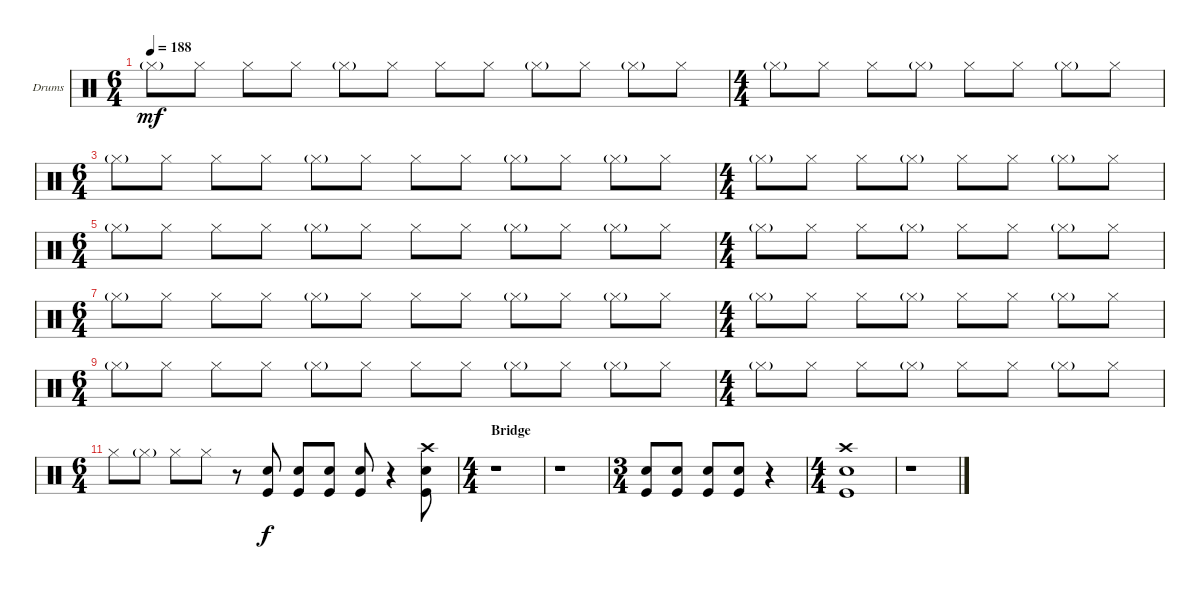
\bracketExtendMode nobrackets
\firstSystemTrackNameOrientation horizontal
\otherSystemsTrackNameOrientation horizontal
\defaultBarNumberDisplay FirstOfSystem
\track ("Drumkit" "Drums") {instrument percussion}
\staff {score}
\articulation defaults
\ts (6 4)
\tempo 188
\clef neutral
\ks c "Hi-Hat (closed)"{g}.8{dy mf} "Hi-Hat (closed)".8 "Hi-Hat (closed)".8 "Hi-Hat (closed)".8 "Hi-Hat (closed)"{g}.8 "Hi-Hat (closed)".8 "Hi-Hat (closed)".8 "Hi-Hat (closed)".8 "Hi-Hat (closed)"{g}.8 "Hi-Hat (closed)".8 "Hi-Hat (closed)"{g}.8 "Hi-Hat (closed)".8
|
\ts (4 4)
"Hi-Hat (closed)"{g}.8 "Hi-Hat (closed)".8 "Hi-Hat (closed)".8 "Hi-Hat (closed)"{g}.8 "Hi-Hat (closed)".8 "Hi-Hat (closed)".8 "Hi-Hat (closed)"{g}.8 "Hi-Hat (closed)".8 |
\ts (6 4)
"Hi-Hat (closed)"{g}.8 "Hi-Hat (closed)".8 "Hi-Hat (closed)".8 "Hi-Hat (closed)".8 "Hi-Hat (closed)"{g}.8 "Hi-Hat (closed)".8 "Hi-Hat (closed)".8 "Hi-Hat (closed)".8 "Hi-Hat (closed)"{g}.8 "Hi-Hat (closed)".8 "Hi-Hat (closed)"{g}.8 "Hi-Hat (closed)".8 |
\ts (4 4)
"Hi-Hat (closed)"{g}.8 "Hi-Hat (closed)".8 "Hi-Hat (closed)".8 "Hi-Hat (closed)"{g}.8 "Hi-Hat (closed)".8 "Hi-Hat (closed)".8 "Hi-Hat (closed)"{g}.8 "Hi-Hat (closed)".8 |
\ts (6 4)
"Hi-Hat (closed)"{g}.8 "Hi-Hat (closed)".8 "Hi-Hat (closed)".8 "Hi-Hat (closed)".8 "Hi-Hat (closed)"{g}.8 "Hi-Hat (closed)".8 "Hi-Hat (closed)".8 "Hi-Hat (closed)".8 "Hi-Hat (closed)"{g}.8 "Hi-Hat (closed)".8 "Hi-Hat (closed)"{g}.8 "Hi-Hat (closed)".8 |
\ts (4 4)
"Hi-Hat (closed)"{g}.8 "Hi-Hat (closed)".8 "Hi-Hat (closed)".8 "Hi-Hat (closed)"{g}.8 "Hi-Hat (closed)".8 "Hi-Hat (closed)".8 "Hi-Hat (closed)"{g}.8 "Hi-Hat (closed)".8 |
\ts (6 4)
"Hi-Hat (closed)"{g}.8 "Hi-Hat (closed)".8 "Hi-Hat (closed)".8 "Hi-Hat (closed)".8 "Hi-Hat (closed)"{g}.8 "Hi-Hat (closed)".8 "Hi-Hat (closed)".8 "Hi-Hat (closed)".8 "Hi-Hat (closed)"{g}.8 "Hi-Hat (closed)".8 "Hi-Hat (closed)"{g}.8 "Hi-Hat (closed)".8 |
\ts (4 4)
"Hi-Hat (closed)"{g}.8 "Hi-Hat (closed)".8 "Hi-Hat (closed)".8 "Hi-Hat (closed)"{g}.8 "Hi-Hat (closed)".8 "Hi-Hat (closed)".8 "Hi-Hat (closed)"{g}.8 "Hi-Hat (closed)".8 |
\ts (6 4)
"Hi-Hat (closed)"{g}.8 "Hi-Hat (closed)".8 "Hi-Hat (closed)".8 "Hi-Hat (closed)".8 "Hi-Hat (closed)"{g}.8 "Hi-Hat (closed)".8 "Hi-Hat (closed)".8 "Hi-Hat (closed)".8 "Hi-Hat (closed)"{g}.8 "Hi-Hat (closed)".8 "Hi-Hat (closed)"{g}.8 "Hi-Hat (closed)".8 |
\ts (4 4)
"Hi-Hat (closed)"{g}.8 "Hi-Hat (closed)".8 "Hi-Hat (closed)".8 "Hi-Hat (closed)"{g}.8 "Hi-Hat (closed)".8 "Hi-Hat (closed)".8 "Hi-Hat (closed)"{g}.8 "Hi-Hat (closed)".8 |
\ts (6 4)
"Hi-Hat (closed)".8 "Hi-Hat (closed)"{g}.8 "Hi-Hat (closed)".8 "Hi-Hat (closed)".8 r.8 ("Snare (hit) 2" "Kick (hit)").8{dy f} ("Snare (hit) 2" "Kick (hit)").8 ("Snare (hit) 2" "Kick (hit)").8 ("Snare (hit) 2" "Kick (hit)").8 r.4 ("Crash high (hit)" "Kick (hit)" "Snare (hit) 2").8 |
\ts (4 4)
\section ("" "Bridge")
r.1 |
r.1 |
\ts (3 4)
("Kick (hit)" "Snare (hit) 2").8 ("Kick (hit)" "Snare (hit) 2").8 ("Kick (hit)" "Snare (hit) 2").8 ("Kick (hit)" "Snare (hit) 2").8 r.4 |
\ts (4 4)
("Crash high (hit)" "Snare (hit) 2" "Kick (hit)").1 |
r.1
